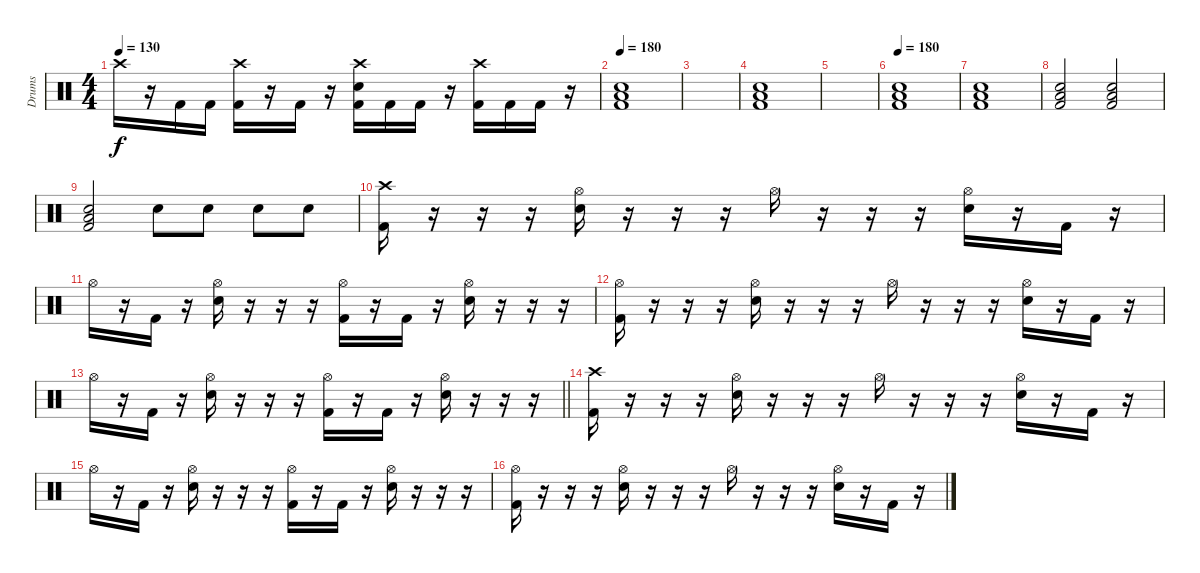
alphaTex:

\track ("Drums" "Drums") {instrument percussion}
\staff {score}
\articulation defaults
\ts (4 4)
\tempo 130
\clef neutral
\ks c "Crash high (hit)".16{dy f}
r.16 "Kick (hit) 2".16 "Kick (hit) 2".16 ("Crash high (hit)" "Kick (hit) 2").16 r.16 "Kick (hit) 2".16 r.16 ("Crash high (hit)" "Electric Snare (hit)" "Kick (hit) 2").16 "Kick (hit) 2".16 "Kick (hit) 2".16 r.16 ("Crash high (hit)" "Kick (hit) 2").16 "Kick (hit) 2".16 "Kick (hit) 2".16 r.16 |
\tempo 180
("Electric Snare (hit)" "Low Floor Tom (hit)" "Kick (hit) 2").1 |
|
("Electric Snare (hit)" "Low Floor Tom (hit)" "Kick (hit) 2").1 |
|
\tempo 180
("Electric Snare (hit)" "Low Floor Tom (hit)" "Kick (hit) 2").1 |
("Electric Snare (hit)" "Low Floor Tom (hit)" "Kick (hit) 2").1 |
("Electric Snare (hit)" "Low Floor Tom (hit)" "Kick (hit) 2").2 ("Electric Snare (hit)" "Low Floor Tom (hit)" "Kick (hit) 2").2 |
("Electric Snare (hit)" "Low Floor Tom (hit)" "Kick (hit) 2").2 "Electric Snare (hit)".8 "Electric Snare (hit)".8 "Electric Snare (hit)".8 "Electric Snare (hit)".8 |
("Crash high (hit)" "Kick (hit) 2").16 r.16 r.16 r.16 ("Hi-Hat (open)" "Electric Snare (hit)").16 r.16 r.16 r.16 "Hi-Hat (open)".16 r.16 r.16 r.16 ("Hi-Hat (open)" "Electric Snare (hit)").16 r.16 "Kick (hit) 2".16 r.16 |
"Hi-Hat (open)".16 r.16 "Kick (hit) 2".16 r.16 ("Hi-Hat (open)" "Electric Snare (hit)").16 r.16 r.16 r.16 ("Hi-Hat (open)" "Kick (hit) 2").16 r.16 "Kick (hit) 2".16 r.16 ("Hi-Hat (open)" "Electric Snare (hit)").16 r.16 r.16 r.16 |
("Hi-Hat (open)" "Kick (hit) 2").16 r.16 r.16 r.16 ("Hi-Hat (open)" "Electric Snare (hit)").16 r.16 r.16 r.16 "Hi-Hat (open)".16 r.16 r.16 r.16 ("Hi-Hat (open)" "Electric Snare (hit)").16 r.16 "Kick (hit) 2".16 r.16 |
\barLineRight lightlight "Hi-Hat (open)".16
r.16 "Kick (hit) 2".16 r.16 ("Hi-Hat (open)" "Electric Snare (hit)").16 r.16 r.16 r.16 ("Hi-Hat (open)" "Kick (hit) 2").16 r.16 "Kick (hit) 2".16 r.16 ("Hi-Hat (open)" "Electric Snare (hit)").16 r.16 r.16 r.16 |
("Crash high (hit)" "Kick (hit) 2").16 r.16 r.16 r.16 ("Hi-Hat (open)" "Electric Snare (hit)").16 r.16 r.16 r.16 "Hi-Hat (open)".16 r.16 r.16 r.16 ("Hi-Hat (open)" "Electric Snare (hit)").16 r.16 "Kick (hit) 2".16 r.16 |
"Hi-Hat (open)".16 r.16 "Kick (hit) 2".16 r.16 ("Hi-Hat (open)" "Electric Snare (hit)").16 r.16 r.16 r.16 ("Hi-Hat (open)" "Kick (hit) 2").16 r.16 "Kick (hit) 2".16 r.16 ("Hi-Hat (open)" "Electric Snare (hit)").16 r.16 r.16 r.16 |
("Hi-Hat (open)" "Kick (hit) 2").16 r.16 r.16 r.16 ("Hi-Hat (open)" "Electric Snare (hit)").16 r.16 r.16 r.16 "Hi-Hat (open)".16 r.16 r.16 r.16 ("Hi-Hat (open)" "Electric Snare (hit)").16 r.16 "Kick (hit) 2".16 r.16
